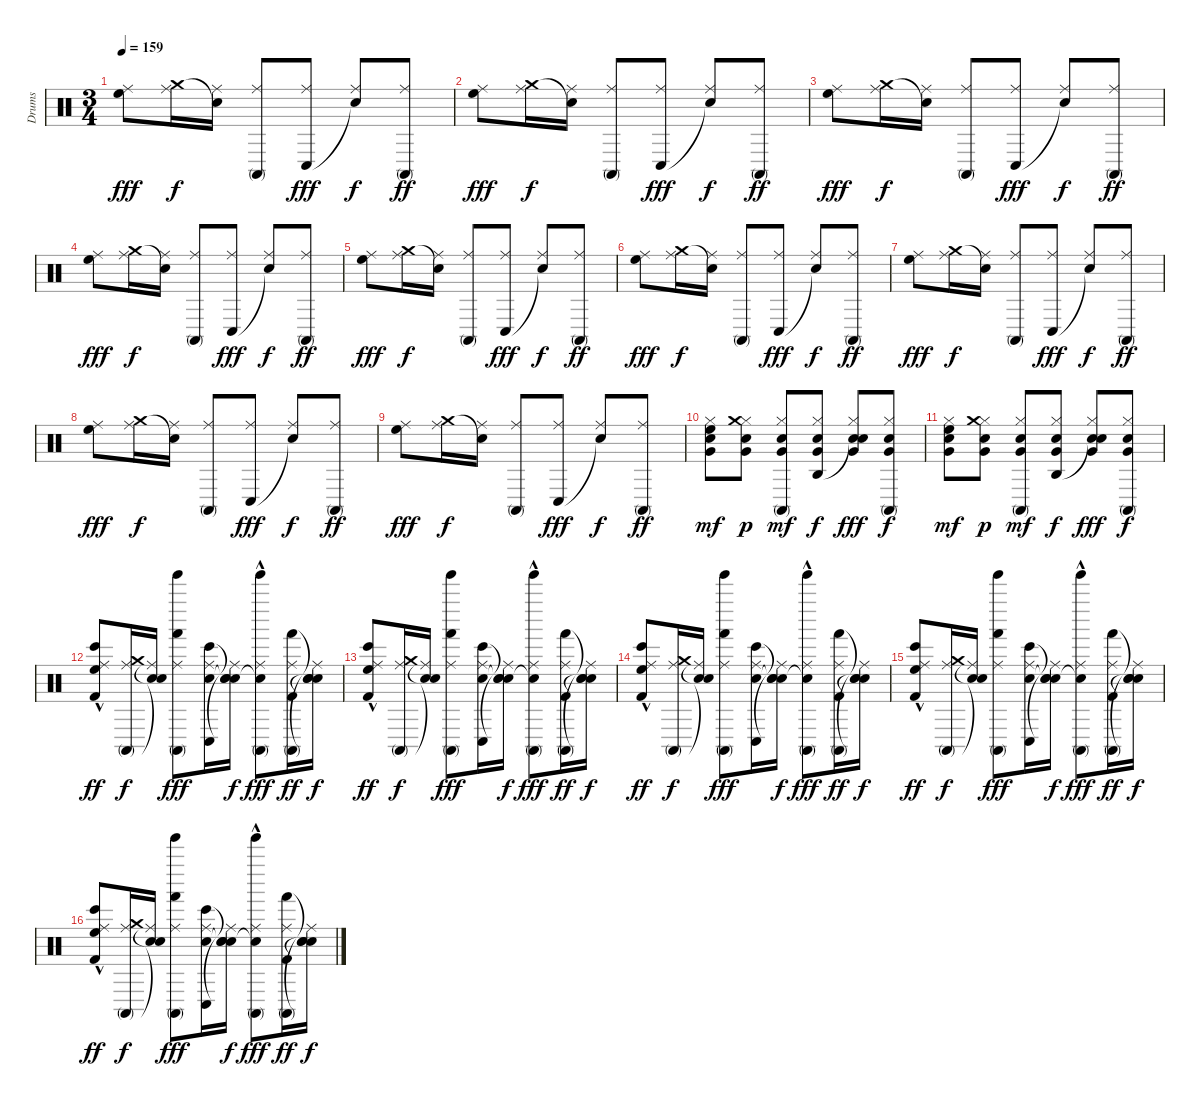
\track ("Drums" "Drums") {instrument percussion}
\staff {score}
\articulation defaults
\ts (3 4)
\tempo 159
\clef neutral
\ks c
("Ride (middle)" "High Floor Tom (hit)").8{dy fff} ("Ride (middle)" "Crash medium (hit)").16{dy f} ("Ride (middle)" "Snare (hit)"{t}).16 ("Ride (middle)" "Conga high (mute)").8 ("Ride (middle)" "Conga low (hit)").8{dy fff} ("Ride (middle)" "Snare (hit)"{t}).8{dy f} ("Ride (middle)" "Conga high (mute)").8{dy ff} |
("Ride (middle)" "High Floor Tom (hit)").8{dy fff} ("Ride (middle)" "Crash medium (hit)").16{dy f} ("Ride (middle)" "Snare (hit)"{t}).16 ("Ride (middle)" "Conga high (mute)").8 ("Ride (middle)" "Conga low (hit)").8{dy fff} ("Ride (middle)" "Snare (hit)"{t}).8{dy f} ("Ride (middle)" "Conga high (mute)").8{dy ff} |
("Ride (middle)" "High Floor Tom (hit)").8{dy fff} ("Ride (middle)" "Crash medium (hit)").16{dy f} ("Ride (middle)" "Snare (hit)"{t}).16 ("Ride (middle)" "Conga high (mute)").8 ("Ride (middle)" "Conga low (hit)").8{dy fff} ("Ride (middle)" "Snare (hit)"{t}).8{dy f} ("Ride (middle)" "Conga high (mute)").8{dy ff} |
("Ride (middle)" "High Floor Tom (hit)").8{dy fff} ("Ride (middle)" "Crash medium (hit)").16{dy f} ("Ride (middle)" "Snare (hit)"{t}).16 ("Ride (middle)" "Conga high (mute)").8 ("Ride (middle)" "Conga low (hit)").8{dy fff} ("Ride (middle)" "Snare (hit)"{t}).8{dy f} ("Ride (middle)" "Conga high (mute)").8{dy ff} |
("Ride (middle)" "High Floor Tom (hit)").8{dy fff} ("Ride (middle)" "Crash medium (hit)").16{dy f} ("Ride (middle)" "Snare (hit)"{t}).16 ("Ride (middle)" "Conga high (mute)").8 ("Ride (middle)" "Conga low (hit)").8{dy fff} ("Ride (middle)" "Snare (hit)"{t}).8{dy f} ("Ride (middle)" "Conga high (mute)").8{dy ff} |
("Ride (middle)" "High Floor Tom (hit)").8{dy fff} ("Ride (middle)" "Crash medium (hit)").16{dy f} ("Ride (middle)" "Snare (hit)"{t}).16 ("Ride (middle)" "Conga high (mute)").8 ("Ride (middle)" "Conga low (hit)").8{dy fff} ("Ride (middle)" "Snare (hit)"{t}).8{dy f} ("Ride (middle)" "Conga high (mute)").8{dy ff} |
("Ride (middle)" "High Floor Tom (hit)").8{dy fff} ("Ride (middle)" "Crash medium (hit)").16{dy f} ("Ride (middle)" "Snare (hit)"{t}).16 ("Ride (middle)" "Conga high (mute)").8 ("Ride (middle)" "Conga low (hit)").8{dy fff} ("Ride (middle)" "Snare (hit)"{t}).8{dy f} ("Ride (middle)" "Conga high (mute)").8{dy ff} |
("Ride (middle)" "High Floor Tom (hit)").8{dy fff} ("Ride (middle)" "Crash medium (hit)").16{dy f} ("Ride (middle)" "Snare (hit)"{t}).16 ("Ride (middle)" "Conga high (mute)").8 ("Ride (middle)" "Conga low (hit)").8{dy fff} ("Ride (middle)" "Snare (hit)"{t}).8{dy f} ("Ride (middle)" "Conga high (mute)").8{dy ff} |
("Ride (middle)" "High Floor Tom (hit)").8{dy fff} ("Ride (middle)" "Crash medium (hit)").16{dy f} ("Ride (middle)" "Snare (hit)"{t}).16 ("Ride (middle)" "Conga high (mute)").8 ("Ride (middle)" "Conga low (hit)").8{dy fff} ("Ride (middle)" "Snare (hit)"{t}).8{dy f} ("Ride (middle)" "Conga high (mute)").8{dy ff} |
("Hi-Hat (closed)" "Snare (hit) 2" "Very Low Tom (hit)" "High Floor Tom (hit)").8{dy mf} ("Hi-Hat (closed)" "Snare (hit) 2" "Very Low Tom (hit)" "Crash medium (hit)").8{dy p} ("Hi-Hat (closed)" "Snare (hit) 2" "Very Low Tom (hit)" "Conga high (mute)").8{dy mf} ("Hi-Hat (closed)" "Snare (hit) 2" "Very Low Tom (hit)" "Agogo high (hit)").8{dy f} ("Hi-Hat (closed)" "Snare (hit) 2" "Very Low Tom (hit)" "Snare (hit)"{t}).8{dy fff} ("Hi-Hat (closed)" "Snare (hit) 2" "Very Low Tom (hit)" "Conga high (mute)").8{dy f} |
("Hi-Hat (closed)" "Snare (hit) 2" "Very Low Tom (hit)" "High Floor Tom (hit)").8{dy mf} ("Hi-Hat (closed)" "Snare (hit) 2" "Very Low Tom (hit)" "Crash medium (hit)").8{dy p} ("Hi-Hat (closed)" "Snare (hit) 2" "Very Low Tom (hit)" "Conga high (mute)").8{dy mf} ("Hi-Hat (closed)" "Snare (hit) 2" "Very Low Tom (hit)" "Agogo high (hit)").8{dy f} ("Hi-Hat (closed)" "Snare (hit) 2" "Very Low Tom (hit)" "Snare (hit)"{t}).8{dy fff} ("Hi-Hat (closed)" "Snare (hit) 2" "Very Low Tom (hit)" "Conga high (mute)").8{dy f} |
("Kick (hit) 2" "Bongo High (hit)"{hac} "Ride (middle)" "High Floor Tom (hit)").8{dy ff} ("Conga high (mute)" "Ride (middle)" "Crash medium (hit)").16{dy f} ("Snare (hit)"{t} "Ride (middle)" "Snare (hit)"{t}).16 ("Tinkle Bell (hit)" "Hand (hit)" "Ride (middle)" "Conga high (mute)").8{dy fff} ("Snare (hit) 2" "Bongo High (hit)" "Ride (middle)" "Conga low (hit)").16 ("Snare (hit)"{t} "Snare (hit)"{t} "Ride (middle)" "Snare (hit)"{t}).16{dy f} ("Tinkle Bell (hit)" "Conga high (mute)"{hac} "Ride (middle)" "Snare (hit)"{t}).8{dy fff} ("Kick (hit) 2" "Hand (hit)" "Ride (middle)" "Conga high (mute)").16{dy ff} ("Snare (hit)"{t} "Snare (hit)"{t} "Ride (middle)" "Snare (hit)"{t}).16{dy f} |
("Kick (hit) 2" "Bongo High (hit)"{hac} "Ride (middle)" "High Floor Tom (hit)").8{dy ff} ("Conga high (mute)" "Ride (middle)" "Crash medium (hit)").16{dy f} ("Snare (hit)"{t} "Ride (middle)" "Snare (hit)"{t}).16 ("Tinkle Bell (hit)" "Hand (hit)" "Ride (middle)" "Conga high (mute)").8{dy fff} ("Snare (hit) 2" "Bongo High (hit)" "Ride (middle)" "Conga low (hit)").16 ("Snare (hit)"{t} "Snare (hit)"{t} "Ride (middle)" "Snare (hit)"{t}).16{dy f} ("Tinkle Bell (hit)" "Conga high (mute)"{hac} "Ride (middle)" "Snare (hit)"{t}).8{dy fff} ("Kick (hit) 2" "Hand (hit)" "Ride (middle)" "Conga high (mute)").16{dy ff} ("Snare (hit)"{t} "Snare (hit)"{t} "Ride (middle)" "Snare (hit)"{t}).16{dy f} |
("Kick (hit) 2" "Bongo High (hit)"{hac} "Ride (middle)" "High Floor Tom (hit)").8{dy ff} ("Conga high (mute)" "Ride (middle)" "Crash medium (hit)").16{dy f} ("Snare (hit)"{t} "Ride (middle)" "Snare (hit)"{t}).16 ("Tinkle Bell (hit)" "Hand (hit)" "Ride (middle)" "Conga high (mute)").8{dy fff} ("Snare (hit) 2" "Bongo High (hit)" "Ride (middle)" "Conga low (hit)").16 ("Snare (hit)"{t} "Snare (hit)"{t} "Ride (middle)" "Snare (hit)"{t}).16{dy f} ("Tinkle Bell (hit)" "Conga high (mute)"{hac} "Ride (middle)" "Snare (hit)"{t}).8{dy fff} ("Kick (hit) 2" "Hand (hit)" "Ride (middle)" "Conga high (mute)").16{dy ff} ("Snare (hit)"{t} "Snare (hit)"{t} "Ride (middle)" "Snare (hit)"{t}).16{dy f} |
("Kick (hit) 2" "Bongo High (hit)"{hac} "Ride (middle)" "High Floor Tom (hit)").8{dy ff} ("Conga high (mute)" "Ride (middle)" "Crash medium (hit)").16{dy f} ("Snare (hit)"{t} "Ride (middle)" "Snare (hit)"{t}).16 ("Tinkle Bell (hit)" "Hand (hit)" "Ride (middle)" "Conga high (mute)").8{dy fff} ("Snare (hit) 2" "Bongo High (hit)" "Ride (middle)" "Conga low (hit)").16 ("Snare (hit)"{t} "Snare (hit)"{t} "Ride (middle)" "Snare (hit)"{t}).16{dy f} ("Tinkle Bell (hit)" "Conga high (mute)"{hac} "Ride (middle)" "Snare (hit)"{t}).8{dy fff} ("Kick (hit) 2" "Hand (hit)" "Ride (middle)" "Conga high (mute)").16{dy ff} ("Snare (hit)"{t} "Snare (hit)"{t} "Ride (middle)" "Snare (hit)"{t}).16{dy f} |
("Kick (hit) 2" "Bongo High (hit)"{hac} "Ride (middle)" "High Floor Tom (hit)").8{dy ff} ("Conga high (mute)" "Ride (middle)" "Crash medium (hit)").16{dy f} ("Snare (hit)"{t} "Ride (middle)" "Snare (hit)"{t}).16 ("Tinkle Bell (hit)" "Hand (hit)" "Ride (middle)" "Conga high (mute)").8{dy fff} ("Snare (hit) 2" "Bongo High (hit)" "Ride (middle)" "Conga low (hit)").16 ("Snare (hit)"{t} "Snare (hit)"{t} "Ride (middle)" "Snare (hit)"{t}).16{dy f} ("Tinkle Bell (hit)" "Conga high (mute)"{hac} "Ride (middle)" "Snare (hit)"{t}).8{dy fff} ("Kick (hit) 2" "Hand (hit)" "Ride (middle)" "Conga high (mute)").16{dy ff} ("Snare (hit)"{t} "Snare (hit)"{t} "Ride (middle)" "Snare (hit)"{t}).16{dy f}
